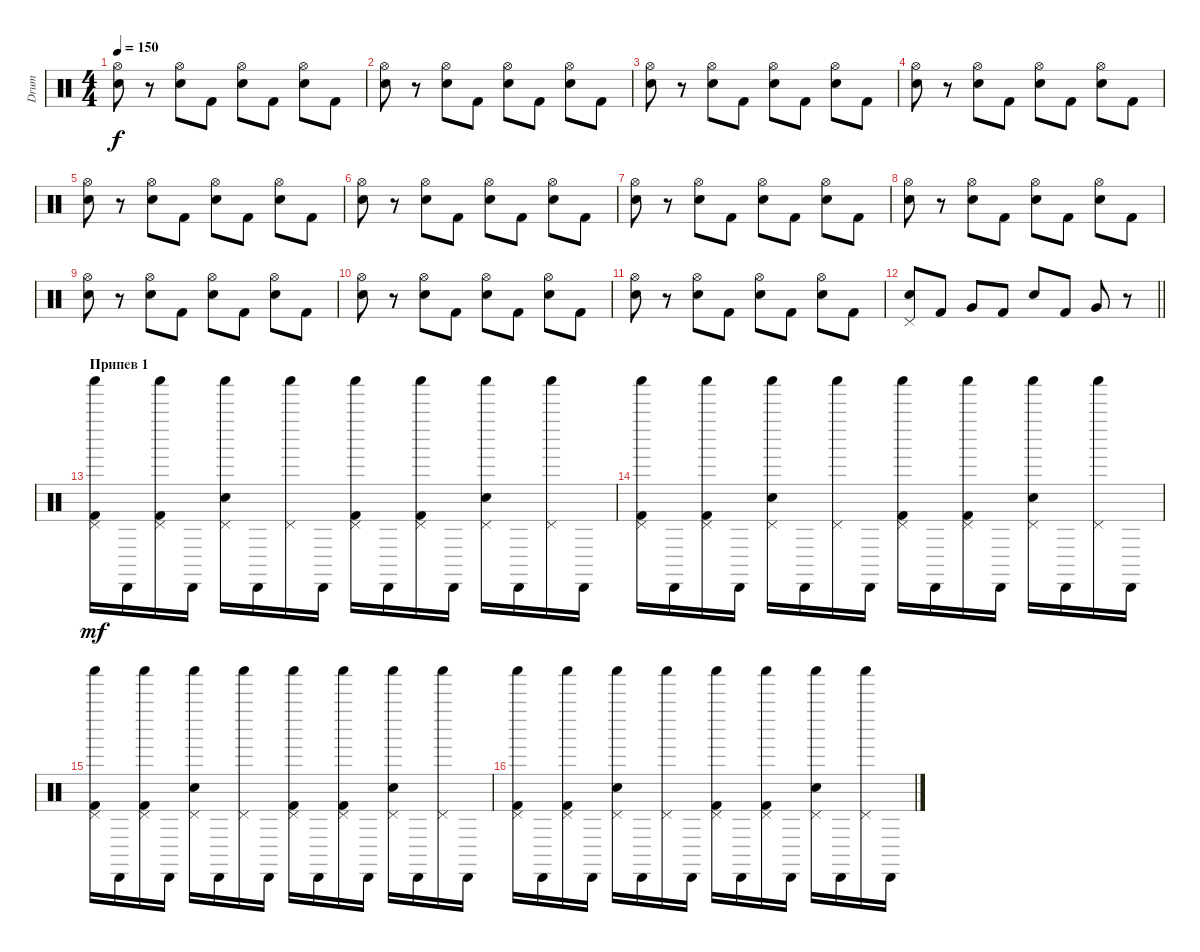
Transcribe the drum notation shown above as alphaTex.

\track ("Drum" "Drum") {instrument percussion}
\staff {score}
\articulation defaults
\ts (4 4)
\tempo 150
\clef neutral
\ks c
("Snare (hit) 2" "Hi-Hat (open)").8{dy f} r.8 ("Snare (hit) 2" "Hi-Hat (open)").8 "Kick (hit) 2".8 ("Snare (hit) 2" "Hi-Hat (open)").8 "Kick (hit) 2".8 ("Snare (hit) 2" "Hi-Hat (open)").8 "Kick (hit) 2".8 |
("Snare (hit) 2" "Hi-Hat (open)").8 r.8 ("Snare (hit) 2" "Hi-Hat (open)").8 "Kick (hit) 2".8 ("Snare (hit) 2" "Hi-Hat (open)").8 "Kick (hit) 2".8 ("Snare (hit) 2" "Hi-Hat (open)").8 "Kick (hit) 2".8 |
("Snare (hit) 2" "Hi-Hat (open)").8 r.8 ("Snare (hit) 2" "Hi-Hat (open)").8 "Kick (hit) 2".8 ("Snare (hit) 2" "Hi-Hat (open)").8 "Kick (hit) 2".8 ("Snare (hit) 2" "Hi-Hat (open)").8 "Kick (hit) 2".8 |
("Snare (hit) 2" "Hi-Hat (open)").8 r.8 ("Snare (hit) 2" "Hi-Hat (open)").8 "Kick (hit) 2".8 ("Snare (hit) 2" "Hi-Hat (open)").8 "Kick (hit) 2".8 ("Snare (hit) 2" "Hi-Hat (open)").8 "Kick (hit) 2".8 |
("Snare (hit) 2" "Hi-Hat (open)").8 r.8 ("Snare (hit) 2" "Hi-Hat (open)").8 "Kick (hit) 2".8 ("Snare (hit) 2" "Hi-Hat (open)").8 "Kick (hit) 2".8 ("Snare (hit) 2" "Hi-Hat (open)").8 "Kick (hit) 2".8 |
("Snare (hit) 2" "Hi-Hat (open)").8 r.8 ("Snare (hit) 2" "Hi-Hat (open)").8 "Kick (hit) 2".8 ("Snare (hit) 2" "Hi-Hat (open)").8 "Kick (hit) 2".8 ("Snare (hit) 2" "Hi-Hat (open)").8 "Kick (hit) 2".8 |
("Snare (hit) 2" "Hi-Hat (open)").8 r.8 ("Snare (hit) 2" "Hi-Hat (open)").8 "Kick (hit) 2".8 ("Snare (hit) 2" "Hi-Hat (open)").8 "Kick (hit) 2".8 ("Snare (hit) 2" "Hi-Hat (open)").8 "Kick (hit) 2".8 |
("Snare (hit) 2" "Hi-Hat (open)").8 r.8 ("Snare (hit) 2" "Hi-Hat (open)").8 "Kick (hit) 2".8 ("Snare (hit) 2" "Hi-Hat (open)").8 "Kick (hit) 2".8 ("Snare (hit) 2" "Hi-Hat (open)").8 "Kick (hit) 2".8 |
("Snare (hit) 2" "Hi-Hat (open)").8 r.8 ("Snare (hit) 2" "Hi-Hat (open)").8 "Kick (hit) 2".8 ("Snare (hit) 2" "Hi-Hat (open)").8 "Kick (hit) 2".8 ("Snare (hit) 2" "Hi-Hat (open)").8 "Kick (hit) 2".8 |
("Snare (hit) 2" "Hi-Hat (open)").8 r.8 ("Snare (hit) 2" "Hi-Hat (open)").8 "Kick (hit) 2".8 ("Snare (hit) 2" "Hi-Hat (open)").8 "Kick (hit) 2".8 ("Snare (hit) 2" "Hi-Hat (open)").8 "Kick (hit) 2".8 |
("Snare (hit) 2" "Hi-Hat (open)").8 r.8 ("Snare (hit) 2" "Hi-Hat (open)").8 "Kick (hit) 2".8 ("Snare (hit) 2" "Hi-Hat (open)").8 "Kick (hit) 2".8 ("Snare (hit) 2" "Hi-Hat (open)").8 "Kick (hit) 2".8 |
\barLineRight lightlight
("Snare (hit) 2" "Pedal Hi-Hat (hit)").8 "Kick (hit) 2".8 "Very Low Tom (hit)".8 "Kick (hit) 2".8 "Snare (hit) 2".8 "Kick (hit) 2".8 "Very Low Tom (hit)".8 r.8 |
\section ("" "Припев 1")
("Shaker (hit)" "Pedal Hi-Hat (hit)" "Kick (hit) 2").16{dy mf} "Cabasa (hit)".16 ("Pedal Hi-Hat (hit)" "Kick (hit) 2" "Shaker (hit)").16 "Cabasa (hit)".16 ("Shaker (hit)" "Pedal Hi-Hat (hit)" "Snare (hit) 2").16 "Cabasa (hit)".16 ("Pedal Hi-Hat (hit)" "Shaker (hit)").16 "Cabasa (hit)".16 ("Shaker (hit)" "Pedal Hi-Hat (hit)" "Kick (hit) 2").16 "Cabasa (hit)".16 ("Pedal Hi-Hat (hit)" "Kick (hit) 2" "Shaker (hit)").16 "Cabasa (hit)".16 ("Shaker (hit)" "Pedal Hi-Hat (hit)" "Snare (hit) 2").16 "Cabasa (hit)".16 ("Pedal Hi-Hat (hit)" "Shaker (hit)").16 "Cabasa (hit)".16 |
("Shaker (hit)" "Pedal Hi-Hat (hit)" "Kick (hit) 2").16 "Cabasa (hit)".16 ("Pedal Hi-Hat (hit)" "Kick (hit) 2" "Shaker (hit)").16 "Cabasa (hit)".16 ("Shaker (hit)" "Pedal Hi-Hat (hit)" "Snare (hit) 2").16 "Cabasa (hit)".16 ("Pedal Hi-Hat (hit)" "Shaker (hit)").16 "Cabasa (hit)".16 ("Shaker (hit)" "Pedal Hi-Hat (hit)" "Kick (hit) 2").16 "Cabasa (hit)".16 ("Pedal Hi-Hat (hit)" "Kick (hit) 2" "Shaker (hit)").16 "Cabasa (hit)".16 ("Shaker (hit)" "Pedal Hi-Hat (hit)" "Snare (hit) 2").16 "Cabasa (hit)".16 ("Pedal Hi-Hat (hit)" "Shaker (hit)").16 "Cabasa (hit)".16 |
("Shaker (hit)" "Pedal Hi-Hat (hit)" "Kick (hit) 2").16 "Cabasa (hit)".16 ("Pedal Hi-Hat (hit)" "Kick (hit) 2" "Shaker (hit)").16 "Cabasa (hit)".16 ("Shaker (hit)" "Pedal Hi-Hat (hit)" "Snare (hit) 2").16 "Cabasa (hit)".16 ("Pedal Hi-Hat (hit)" "Shaker (hit)").16 "Cabasa (hit)".16 ("Shaker (hit)" "Pedal Hi-Hat (hit)" "Kick (hit) 2").16 "Cabasa (hit)".16 ("Pedal Hi-Hat (hit)" "Kick (hit) 2" "Shaker (hit)").16 "Cabasa (hit)".16 ("Shaker (hit)" "Pedal Hi-Hat (hit)" "Snare (hit) 2").16 "Cabasa (hit)".16 ("Pedal Hi-Hat (hit)" "Shaker (hit)").16 "Cabasa (hit)".16 |
("Shaker (hit)" "Pedal Hi-Hat (hit)" "Kick (hit) 2").16 "Cabasa (hit)".16 ("Pedal Hi-Hat (hit)" "Kick (hit) 2" "Shaker (hit)").16 "Cabasa (hit)".16 ("Shaker (hit)" "Pedal Hi-Hat (hit)" "Snare (hit) 2").16 "Cabasa (hit)".16 ("Pedal Hi-Hat (hit)" "Shaker (hit)").16 "Cabasa (hit)".16 ("Shaker (hit)" "Pedal Hi-Hat (hit)" "Kick (hit) 2").16 "Cabasa (hit)".16 ("Pedal Hi-Hat (hit)" "Kick (hit) 2" "Shaker (hit)").16 "Cabasa (hit)".16 ("Shaker (hit)" "Pedal Hi-Hat (hit)" "Snare (hit) 2").16 "Cabasa (hit)".16 ("Pedal Hi-Hat (hit)" "Shaker (hit)").16 "Cabasa (hit)".16
